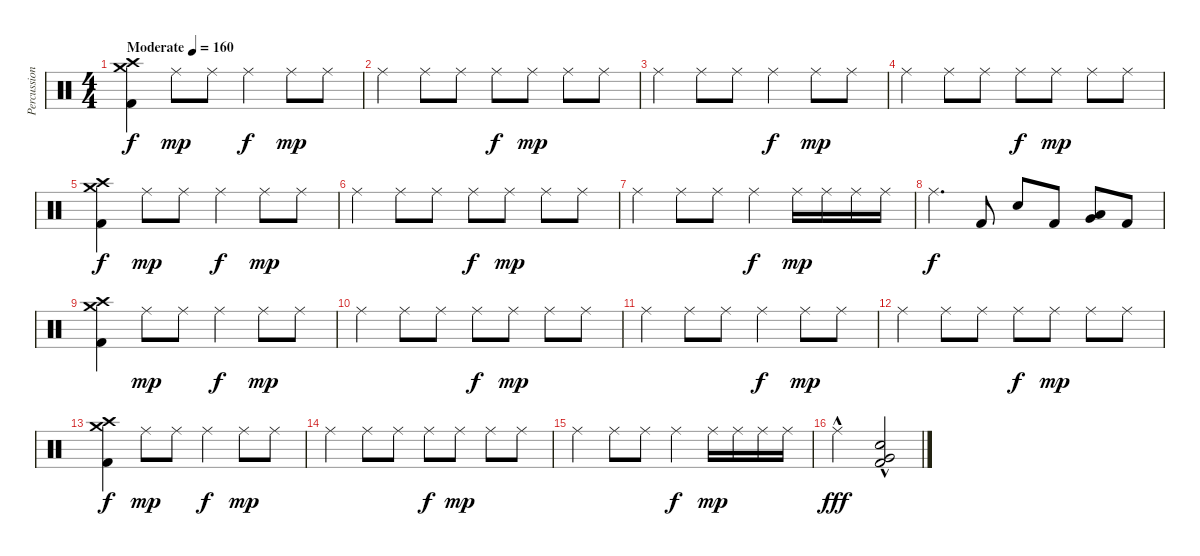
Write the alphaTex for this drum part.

\track ("Percussion" "Percussion") {instrument percussion}
\staff {score}
\articulation defaults
\ts (4 4)
\tempo (160 "Moderate")
\clef neutral
\ks c
("Crash medium (hit)" "Crash high (hit)" "Kick (hit) 2").4{dy f} "Ride (middle)".8{dy mp} "Ride (middle)".8 "Ride (middle)".4{dy f} "Ride (middle)".8{dy mp} "Ride (middle)".8 |
"Ride (middle)".4 "Ride (middle)".8 "Ride (middle)".8 "Ride (middle)".8{dy f} "Ride (middle)".8{dy mp} "Ride (middle)".8 "Ride (middle)".8 |
"Ride (middle)".4 "Ride (middle)".8 "Ride (middle)".8 "Ride (middle)".4{dy f} "Ride (middle)".8{dy mp} "Ride (middle)".8 |
"Ride (middle)".4 "Ride (middle)".8 "Ride (middle)".8 "Ride (middle)".8{dy f} "Ride (middle)".8{dy mp} "Ride (middle)".8 "Ride (middle)".8 |
("Crash medium (hit)" "Crash high (hit)" "Kick (hit) 2").4{dy f} "Ride (middle)".8{dy mp} "Ride (middle)".8 "Ride (middle)".4{dy f} "Ride (middle)".8{dy mp} "Ride (middle)".8 |
"Ride (middle)".4 "Ride (middle)".8 "Ride (middle)".8 "Ride (middle)".8{dy f} "Ride (middle)".8{dy mp} "Ride (middle)".8 "Ride (middle)".8 |
"Ride (middle)".4 "Ride (middle)".8 "Ride (middle)".8 "Ride (middle)".4{dy f} "Ride (middle)".16{dy mp} "Ride (middle)".16 "Ride (middle)".16 "Ride (middle)".16 |
"Ride (middle)".4{d dy f} "Kick (hit) 2".8 "Electric Snare (hit)".8 "Kick (hit) 2".8 ("Low Tom (hit)" "Very Low Tom (hit)").8 "Kick (hit) 2".8 |
("Crash medium (hit)" "Crash high (hit)" "Kick (hit) 2").4 "Ride (middle)".8{dy mp} "Ride (middle)".8 "Ride (middle)".4{dy f} "Ride (middle)".8{dy mp} "Ride (middle)".8 |
"Ride (middle)".4 "Ride (middle)".8 "Ride (middle)".8 "Ride (middle)".8{dy f} "Ride (middle)".8{dy mp} "Ride (middle)".8 "Ride (middle)".8 |
"Ride (middle)".4 "Ride (middle)".8 "Ride (middle)".8 "Ride (middle)".4{dy f} "Ride (middle)".8{dy mp} "Ride (middle)".8 |
"Ride (middle)".4 "Ride (middle)".8 "Ride (middle)".8 "Ride (middle)".8{dy f} "Ride (middle)".8{dy mp} "Ride (middle)".8 "Ride (middle)".8 |
("Crash medium (hit)" "Crash high (hit)" "Kick (hit) 2").4{dy f} "Ride (middle)".8{dy mp} "Ride (middle)".8 "Ride (middle)".4{dy f} "Ride (middle)".8{dy mp} "Ride (middle)".8 |
"Ride (middle)".4 "Ride (middle)".8 "Ride (middle)".8 "Ride (middle)".8{dy f} "Ride (middle)".8{dy mp} "Ride (middle)".8 "Ride (middle)".8 |
"Ride (middle)".4 "Ride (middle)".8 "Ride (middle)".8 "Ride (middle)".4{dy f} "Ride (middle)".16{dy mp} "Ride (middle)".16 "Ride (middle)".16 "Ride (middle)".16 |
"Ride (middle)"{hac}.2{dy fff} ("Electric Snare (hit)"{hac} "Very Low Tom (hit)"{hac} "Kick (hit) 2"{hac}).2
